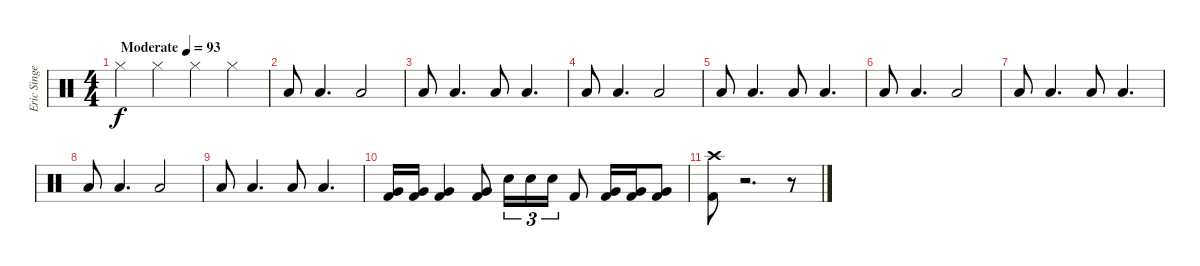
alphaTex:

\track ("Eric Singer (percussions)" "Eric Singe") {instrument percussion}
\staff {score}
\articulation defaults
\ts (4 4)
\tempo (93 "Moderate")
\clef neutral
\ks c "Hi-Hat (closed)".4{dy f} "Hi-Hat (closed)".4 "Hi-Hat (closed)".4 "Hi-Hat (closed)".4
|
"Low Floor Tom (hit)".8 "Low Floor Tom (hit)".4{d} "Low Floor Tom (hit)".2 |
"Low Floor Tom (hit)".8 "Low Floor Tom (hit)".4{d} "Low Floor Tom (hit)".8 "Low Floor Tom (hit)".4{d} |
"Low Floor Tom (hit)".8 "Low Floor Tom (hit)".4{d} "Low Floor Tom (hit)".2 |
"Low Floor Tom (hit)".8 "Low Floor Tom (hit)".4{d} "Low Floor Tom (hit)".8 "Low Floor Tom (hit)".4{d} |
"Low Floor Tom (hit)".8 "Low Floor Tom (hit)".4{d} "Low Floor Tom (hit)".2 |
"Low Floor Tom (hit)".8 "Low Floor Tom (hit)".4{d} "Low Floor Tom (hit)".8 "Low Floor Tom (hit)".4{d} |
"Low Floor Tom (hit)".8 "Low Floor Tom (hit)".4{d} "Low Floor Tom (hit)".2 |
"Low Floor Tom (hit)".8 "Low Floor Tom (hit)".4{d} "Low Floor Tom (hit)".8 "Low Floor Tom (hit)".4{d} |
("Kick (hit) 2" "Very Low Tom (hit)").16 ("Kick (hit) 2" "Very Low Tom (hit)").16 ("Kick (hit) 2" "Very Low Tom (hit)").4 ("Kick (hit) 2" "Very Low Tom (hit)").8 "Snare (hit) 2".16{tu (3 2)} "Snare (hit) 2".16{tu (3 2)} "Snare (hit) 2".16{tu (3 2)} "Kick (hit) 2".8 ("Kick (hit) 2" "Very Low Tom (hit)").16 ("Kick (hit) 2" "Very Low Tom (hit)").16 ("Kick (hit) 2" "Very Low Tom (hit)").8 |
("Crash high (hit)" "Kick (hit) 2").8 r.2{d} r.8
